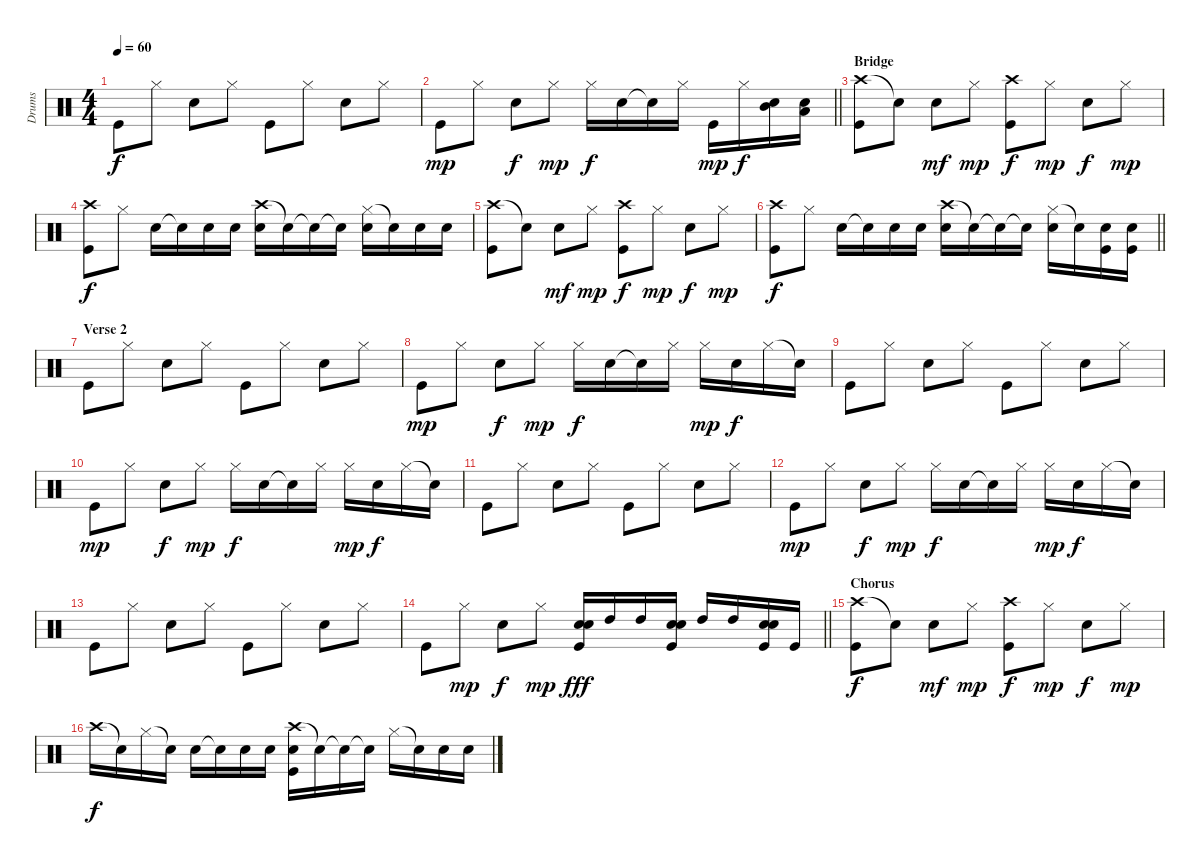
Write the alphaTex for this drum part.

\track ("Drums" "Drums") {instrument percussion}
\staff {score}
\articulation defaults
\ts (4 4)
\tempo 60
\clef neutral
\ks c "Kick (hit)".8{dy f} "Hi-Hat (closed)".8 "Snare (hit) 2".8 "Hi-Hat (closed)".8 "Kick (hit)".8 "Hi-Hat (closed)".8 "Snare (hit) 2".8 "Hi-Hat (closed)".8
|
\barLineRight lightlight "Kick (hit)".8{dy mp} "Hi-Hat (closed)".8 "Snare (hit) 2".8{dy f} "Hi-Hat (closed)".8{dy mp} "Hi-Hat (closed)".16{dy f} "Snare (hit) 2".16 "Snare (hit)"{t}.16 "Hi-Hat (closed)".16 "Kick (hit)".16{dy mp} "Hi-Hat (closed)".16{dy f}
("Snare (hit) 2" "Mid Tom (hit)").16 ("Snare (hit) 2" "Low Tom (hit)").16 |
\section ("" "Bridge")
("Crash high (hit)" "Kick (hit)").8 "Snare (hit)"{t}.8 "Snare (hit) 2".8{dy mf} "Hi-Hat (closed)".8{dy mp} ("Crash high (hit)" "Kick (hit)").8{dy f} "Hi-Hat (closed)".8{dy mp} "Snare (hit) 2".8{dy f} "Hi-Hat (closed)".8{dy mp} |
("Crash high (hit)" "Kick (hit)").8{dy f} "Hi-Hat (closed)".8 "Snare (hit) 2".16 "Snare (hit)"{t}.16 "Snare (hit) 2".16 "Snare (hit) 2".16 ("Crash high (hit)" "Snare (hit) 2").16 "Snare (hit) 2"{t}.16 "Snare (hit)"{t}.16 "Snare (hit)"{t}.16 ("Hi-Hat (closed)" "Snare (hit) 2").16 "Snare (hit)"{t}.16 "Snare (hit) 2".16 "Snare (hit) 2".16 |
("Crash high (hit)" "Kick (hit)").8 "Snare (hit)"{t}.8 "Snare (hit) 2".8{dy mf} "Hi-Hat (closed)".8{dy mp} ("Crash high (hit)" "Kick (hit)").8{dy f} "Hi-Hat (closed)".8{dy mp} "Snare (hit) 2".8{dy f} "Hi-Hat (closed)".8{dy mp} |
\barLineRight lightlight
("Crash high (hit)" "Kick (hit)").8{dy f} "Hi-Hat (closed)".8 "Snare (hit) 2".16 "Snare (hit)"{t}.16 "Snare (hit) 2".16 "Snare (hit) 2".16 ("Crash high (hit)" "Snare (hit) 2").16 "Snare (hit) 2"{t}.16 "Snare (hit)"{t}.16 "Snare (hit)"{t}.16 ("Hi-Hat (closed)" "Snare (hit) 2").16 "Snare (hit)"{t}.16 ("Snare (hit) 2" "Kick (hit)").16 ("Snare (hit) 2" "Kick (hit)").16 |
\section ("" "Verse 2")
"Kick (hit)".8 "Hi-Hat (closed)".8 "Snare (hit) 2".8 "Hi-Hat (closed)".8 "Kick (hit)".8 "Hi-Hat (closed)".8 "Snare (hit) 2".8 "Hi-Hat (closed)".8 |
"Kick (hit)".8{dy mp} "Hi-Hat (closed)".8 "Snare (hit) 2".8{dy f} "Hi-Hat (closed)".8{dy mp} "Hi-Hat (closed)".16{dy f} "Snare (hit) 2".16 "Snare (hit)"{t}.16 "Hi-Hat (closed)".16 "Hi-Hat (closed)".16{dy mp} "Snare (hit) 2".16{dy f} "Hi-Hat (closed)".16 "Snare (hit)"{t}.16 |
"Kick (hit)".8 "Hi-Hat (closed)".8 "Snare (hit) 2".8 "Hi-Hat (closed)".8 "Kick (hit)".8 "Hi-Hat (closed)".8 "Snare (hit) 2".8 "Hi-Hat (closed)".8 |
"Kick (hit)".8{dy mp} "Hi-Hat (closed)".8 "Snare (hit) 2".8{dy f} "Hi-Hat (closed)".8{dy mp} "Hi-Hat (closed)".16{dy f} "Snare (hit) 2".16 "Snare (hit)"{t}.16 "Hi-Hat (closed)".16 "Hi-Hat (closed)".16{dy mp} "Snare (hit) 2".16{dy f} "Hi-Hat (closed)".16 "Snare (hit)"{t}.16 |
"Kick (hit)".8 "Hi-Hat (closed)".8 "Snare (hit) 2".8 "Hi-Hat (closed)".8 "Kick (hit)".8 "Hi-Hat (closed)".8 "Snare (hit) 2".8 "Hi-Hat (closed)".8 |
"Kick (hit)".8{dy mp} "Hi-Hat (closed)".8 "Snare (hit) 2".8{dy f} "Hi-Hat (closed)".8{dy mp} "Hi-Hat (closed)".16{dy f} "Snare (hit) 2".16 "Snare (hit)"{t}.16 "Hi-Hat (closed)".16 "Hi-Hat (closed)".16{dy mp} "Snare (hit) 2".16{dy f} "Hi-Hat (closed)".16 "Snare (hit)"{t}.16 |
"Kick (hit)".8 "Hi-Hat (closed)".8 "Snare (hit) 2".8 "Hi-Hat (closed)".8 "Kick (hit)".8 "Hi-Hat (closed)".8 "Snare (hit) 2".8 "Hi-Hat (closed)".8 |
\barLineRight lightlight "Kick (hit)".8 "Hi-Hat (closed)".8{dy mp} "Snare (hit) 2".8{dy f} "Hi-Hat (closed)".8{dy mp}
("Electric Snare (hit)" "Snare (hit) 2" "Kick (hit)").16{dy fff} "High Tom (hit)".16 "High Tom (hit)".16 ("Electric Snare (hit)" "Snare (hit) 2" "Kick (hit)").16 "High Tom (hit)".16 "High Tom (hit)".16 ("Electric Snare (hit)" "Snare (hit) 2" "Kick (hit)").16 "Kick (hit)".16 |
\section ("" "Chorus")
("Crash high (hit)" "Kick (hit)").8{dy f} "Snare (hit)"{t}.8 "Snare (hit) 2".8{dy mf} "Hi-Hat (closed)".8{dy mp} ("Crash high (hit)" "Kick (hit)").8{dy f} "Hi-Hat (closed)".8{dy mp} "Snare (hit) 2".8{dy f} "Hi-Hat (closed)".8{dy mp} |
"Crash high (hit)".16{dy f} "Snare (hit)"{t}.16 "Hi-Hat (closed)".16 "Snare (hit)"{t}.16 "Snare (hit) 2".16 "Snare (hit)"{t}.16 "Snare (hit) 2".16 "Snare (hit) 2".16 ("Crash high (hit)" "Snare (hit) 2" "Kick (hit)").16 "Snare (hit)"{t}.16 "Snare (hit)"{t}.16 "Snare (hit) 2"{t}.16 "Hi-Hat (closed)".16 "Snare (hit)"{t}.16 "Snare (hit) 2".16 "Snare (hit) 2".16
